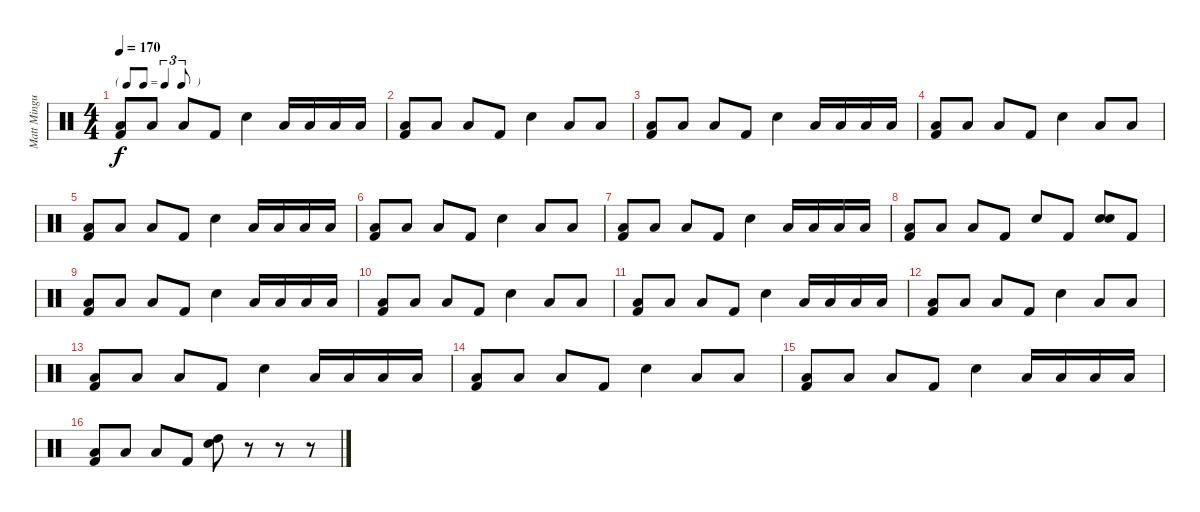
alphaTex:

\track ("Matt Mingus" "Matt Mingu") {instrument percussion}
\staff {score}
\articulation defaults
\ts (4 4)
\tf triplet8th
\tempo 170
\clef neutral
\ks c
("Low Floor Tom (hit)" "Kick (hit) 2").8{dy f} "Low Floor Tom (hit)".8 "Low Floor Tom (hit)".8 "Kick (hit) 2".8 "Electric Snare (hit)".4 "Low Floor Tom (hit)".16 "Low Floor Tom (hit)".16 "Low Floor Tom (hit)".16 "Low Floor Tom (hit)".16 |
("Low Floor Tom (hit)" "Kick (hit) 2").8 "Low Floor Tom (hit)".8 "Low Floor Tom (hit)".8 "Kick (hit) 2".8 "Electric Snare (hit)".4 "Low Floor Tom (hit)".8 "Low Floor Tom (hit)".8 |
("Low Floor Tom (hit)" "Kick (hit) 2").8 "Low Floor Tom (hit)".8 "Low Floor Tom (hit)".8 "Kick (hit) 2".8 "Electric Snare (hit)".4 "Low Floor Tom (hit)".16 "Low Floor Tom (hit)".16 "Low Floor Tom (hit)".16 "Low Floor Tom (hit)".16 |
("Low Floor Tom (hit)" "Kick (hit) 2").8 "Low Floor Tom (hit)".8 "Low Floor Tom (hit)".8 "Kick (hit) 2".8 "Electric Snare (hit)".4 "Low Floor Tom (hit)".8 "Low Floor Tom (hit)".8 |
("Low Floor Tom (hit)" "Kick (hit) 2").8 "Low Floor Tom (hit)".8 "Low Floor Tom (hit)".8 "Kick (hit) 2".8 "Electric Snare (hit)".4 "Low Floor Tom (hit)".16 "Low Floor Tom (hit)".16 "Low Floor Tom (hit)".16 "Low Floor Tom (hit)".16 |
("Low Floor Tom (hit)" "Kick (hit) 2").8 "Low Floor Tom (hit)".8 "Low Floor Tom (hit)".8 "Kick (hit) 2".8 "Electric Snare (hit)".4 "Low Floor Tom (hit)".8 "Low Floor Tom (hit)".8 |
("Low Floor Tom (hit)" "Kick (hit) 2").8 "Low Floor Tom (hit)".8 "Low Floor Tom (hit)".8 "Kick (hit) 2".8 "Electric Snare (hit)".4 "Low Floor Tom (hit)".16 "Low Floor Tom (hit)".16 "Low Floor Tom (hit)".16 "Low Floor Tom (hit)".16 |
("Low Floor Tom (hit)" "Kick (hit) 2").8 "Low Floor Tom (hit)".8 "Low Floor Tom (hit)".8 "Kick (hit) 2".8 "Electric Snare (hit)".8 "Kick (hit) 2".8 ("Snare (hit) 2" "Electric Snare (hit)").8 "Kick (hit) 2".8 |
("Low Floor Tom (hit)" "Kick (hit) 2").8 "Low Floor Tom (hit)".8 "Low Floor Tom (hit)".8 "Kick (hit) 2".8 "Electric Snare (hit)".4 "Low Floor Tom (hit)".16 "Low Floor Tom (hit)".16 "Low Floor Tom (hit)".16 "Low Floor Tom (hit)".16 |
("Low Floor Tom (hit)" "Kick (hit) 2").8 "Low Floor Tom (hit)".8 "Low Floor Tom (hit)".8 "Kick (hit) 2".8 "Electric Snare (hit)".4 "Low Floor Tom (hit)".8 "Low Floor Tom (hit)".8 |
("Low Floor Tom (hit)" "Kick (hit) 2").8 "Low Floor Tom (hit)".8 "Low Floor Tom (hit)".8 "Kick (hit) 2".8 "Electric Snare (hit)".4 "Low Floor Tom (hit)".16 "Low Floor Tom (hit)".16 "Low Floor Tom (hit)".16 "Low Floor Tom (hit)".16 |
("Low Floor Tom (hit)" "Kick (hit) 2").8 "Low Floor Tom (hit)".8 "Low Floor Tom (hit)".8 "Kick (hit) 2".8 "Electric Snare (hit)".4 "Low Floor Tom (hit)".8 "Low Floor Tom (hit)".8 |
("Low Floor Tom (hit)" "Kick (hit) 2").8 "Low Floor Tom (hit)".8 "Low Floor Tom (hit)".8 "Kick (hit) 2".8 "Electric Snare (hit)".4 "Low Floor Tom (hit)".16 "Low Floor Tom (hit)".16 "Low Floor Tom (hit)".16 "Low Floor Tom (hit)".16 |
("Low Floor Tom (hit)" "Kick (hit) 2").8 "Low Floor Tom (hit)".8 "Low Floor Tom (hit)".8 "Kick (hit) 2".8 "Electric Snare (hit)".4 "Low Floor Tom (hit)".8 "Low Floor Tom (hit)".8 |
("Low Floor Tom (hit)" "Kick (hit) 2").8 "Low Floor Tom (hit)".8 "Low Floor Tom (hit)".8 "Kick (hit) 2".8 "Electric Snare (hit)".4 "Low Floor Tom (hit)".16 "Low Floor Tom (hit)".16 "Low Floor Tom (hit)".16 "Low Floor Tom (hit)".16 |
("Low Floor Tom (hit)" "Kick (hit) 2").8 "Low Floor Tom (hit)".8 "Low Floor Tom (hit)".8 "Kick (hit) 2".8 ("High Tom (hit)" "Electric Snare (hit)").8 r.8 r.8 r.8
